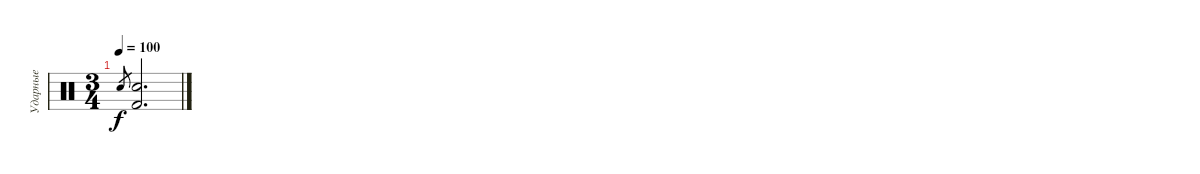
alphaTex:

\track ("Ударные" "Ударные") {instrument percussion}
\staff {score}
\articulation defaults
\ts (3 4)
\tempo 100
\clef neutral
\ks c "Electric Snare (hit)".8{gr dy f}
("Electric Snare (hit)" "Kick (hit) 2").2{d}
